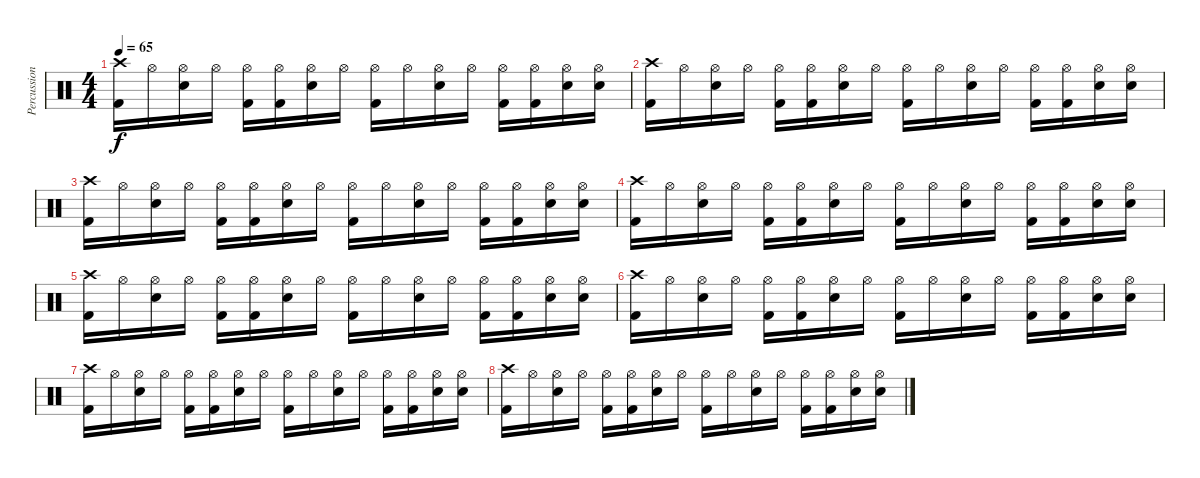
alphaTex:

\track ("Percussion" "Percussion") {instrument percussion}
\staff {score}
\articulation defaults
\ts (4 4)
\tempo 65
\clef neutral
\ks c
("Crash high (hit)" "Kick (hit) 2").16{dy f} "Hi-Hat (open)".16 ("Hi-Hat (open)" "Snare (hit) 2").16 "Hi-Hat (open)".16 ("Hi-Hat (open)" "Kick (hit) 2").16 ("Hi-Hat (open)" "Kick (hit) 2").16 ("Hi-Hat (open)" "Snare (hit) 2").16 "Hi-Hat (open)".16 ("Hi-Hat (open)" "Kick (hit) 2").16 "Hi-Hat (open)".16 ("Hi-Hat (open)" "Snare (hit) 2").16 "Hi-Hat (open)".16 ("Hi-Hat (open)" "Kick (hit) 2").16 ("Hi-Hat (open)" "Kick (hit) 2").16 ("Hi-Hat (open)" "Snare (hit) 2").16 ("Hi-Hat (open)" "Snare (hit) 2").16 |
("Crash high (hit)" "Kick (hit) 2").16 "Hi-Hat (open)".16 ("Hi-Hat (open)" "Snare (hit) 2").16 "Hi-Hat (open)".16 ("Hi-Hat (open)" "Kick (hit) 2").16 ("Hi-Hat (open)" "Kick (hit) 2").16 ("Hi-Hat (open)" "Snare (hit) 2").16 "Hi-Hat (open)".16 ("Hi-Hat (open)" "Kick (hit) 2").16 "Hi-Hat (open)".16 ("Hi-Hat (open)" "Snare (hit) 2").16 "Hi-Hat (open)".16 ("Hi-Hat (open)" "Kick (hit) 2").16 ("Hi-Hat (open)" "Kick (hit) 2").16 ("Hi-Hat (open)" "Snare (hit) 2").16 ("Hi-Hat (open)" "Snare (hit) 2").16 |
("Crash high (hit)" "Kick (hit) 2").16 "Hi-Hat (open)".16 ("Hi-Hat (open)" "Snare (hit) 2").16 "Hi-Hat (open)".16 ("Hi-Hat (open)" "Kick (hit) 2").16 ("Hi-Hat (open)" "Kick (hit) 2").16 ("Hi-Hat (open)" "Snare (hit) 2").16 "Hi-Hat (open)".16 ("Hi-Hat (open)" "Kick (hit) 2").16 "Hi-Hat (open)".16 ("Hi-Hat (open)" "Snare (hit) 2").16 "Hi-Hat (open)".16 ("Hi-Hat (open)" "Kick (hit) 2").16 ("Hi-Hat (open)" "Kick (hit) 2").16 ("Hi-Hat (open)" "Snare (hit) 2").16 ("Hi-Hat (open)" "Snare (hit) 2").16 |
("Crash high (hit)" "Kick (hit) 2").16 "Hi-Hat (open)".16 ("Hi-Hat (open)" "Snare (hit) 2").16 "Hi-Hat (open)".16 ("Hi-Hat (open)" "Kick (hit) 2").16 ("Hi-Hat (open)" "Kick (hit) 2").16 ("Hi-Hat (open)" "Snare (hit) 2").16 "Hi-Hat (open)".16 ("Hi-Hat (open)" "Kick (hit) 2").16 "Hi-Hat (open)".16 ("Hi-Hat (open)" "Snare (hit) 2").16 "Hi-Hat (open)".16 ("Hi-Hat (open)" "Kick (hit) 2").16 ("Hi-Hat (open)" "Kick (hit) 2").16 ("Hi-Hat (open)" "Snare (hit) 2").16 ("Hi-Hat (open)" "Snare (hit) 2").16 |
("Crash high (hit)" "Kick (hit) 2").16 "Hi-Hat (open)".16 ("Hi-Hat (open)" "Snare (hit) 2").16 "Hi-Hat (open)".16 ("Hi-Hat (open)" "Kick (hit) 2").16 ("Hi-Hat (open)" "Kick (hit) 2").16 ("Hi-Hat (open)" "Snare (hit) 2").16 "Hi-Hat (open)".16 ("Hi-Hat (open)" "Kick (hit) 2").16 "Hi-Hat (open)".16 ("Hi-Hat (open)" "Snare (hit) 2").16 "Hi-Hat (open)".16 ("Hi-Hat (open)" "Kick (hit) 2").16 ("Hi-Hat (open)" "Kick (hit) 2").16 ("Hi-Hat (open)" "Snare (hit) 2").16 ("Hi-Hat (open)" "Snare (hit) 2").16 |
("Crash high (hit)" "Kick (hit) 2").16 "Hi-Hat (open)".16 ("Hi-Hat (open)" "Snare (hit) 2").16 "Hi-Hat (open)".16 ("Hi-Hat (open)" "Kick (hit) 2").16 ("Hi-Hat (open)" "Kick (hit) 2").16 ("Hi-Hat (open)" "Snare (hit) 2").16 "Hi-Hat (open)".16 ("Hi-Hat (open)" "Kick (hit) 2").16 "Hi-Hat (open)".16 ("Hi-Hat (open)" "Snare (hit) 2").16 "Hi-Hat (open)".16 ("Hi-Hat (open)" "Kick (hit) 2").16 ("Hi-Hat (open)" "Kick (hit) 2").16 ("Hi-Hat (open)" "Snare (hit) 2").16 ("Hi-Hat (open)" "Snare (hit) 2").16 |
("Crash high (hit)" "Kick (hit) 2").16 "Hi-Hat (open)".16 ("Hi-Hat (open)" "Snare (hit) 2").16 "Hi-Hat (open)".16 ("Hi-Hat (open)" "Kick (hit) 2").16 ("Hi-Hat (open)" "Kick (hit) 2").16 ("Hi-Hat (open)" "Snare (hit) 2").16 "Hi-Hat (open)".16 ("Hi-Hat (open)" "Kick (hit) 2").16 "Hi-Hat (open)".16 ("Hi-Hat (open)" "Snare (hit) 2").16 "Hi-Hat (open)".16 ("Hi-Hat (open)" "Kick (hit) 2").16 ("Hi-Hat (open)" "Kick (hit) 2").16 ("Hi-Hat (open)" "Snare (hit) 2").16 ("Hi-Hat (open)" "Snare (hit) 2").16 |
("Crash high (hit)" "Kick (hit) 2").16 "Hi-Hat (open)".16 ("Hi-Hat (open)" "Snare (hit) 2").16 "Hi-Hat (open)".16 ("Hi-Hat (open)" "Kick (hit) 2").16 ("Hi-Hat (open)" "Kick (hit) 2").16 ("Hi-Hat (open)" "Snare (hit) 2").16 "Hi-Hat (open)".16 ("Hi-Hat (open)" "Kick (hit) 2").16 "Hi-Hat (open)".16 ("Hi-Hat (open)" "Snare (hit) 2").16 "Hi-Hat (open)".16 ("Hi-Hat (open)" "Kick (hit) 2").16 ("Hi-Hat (open)" "Kick (hit) 2").16 ("Hi-Hat (open)" "Snare (hit) 2").16 ("Hi-Hat (open)" "Snare (hit) 2").16
